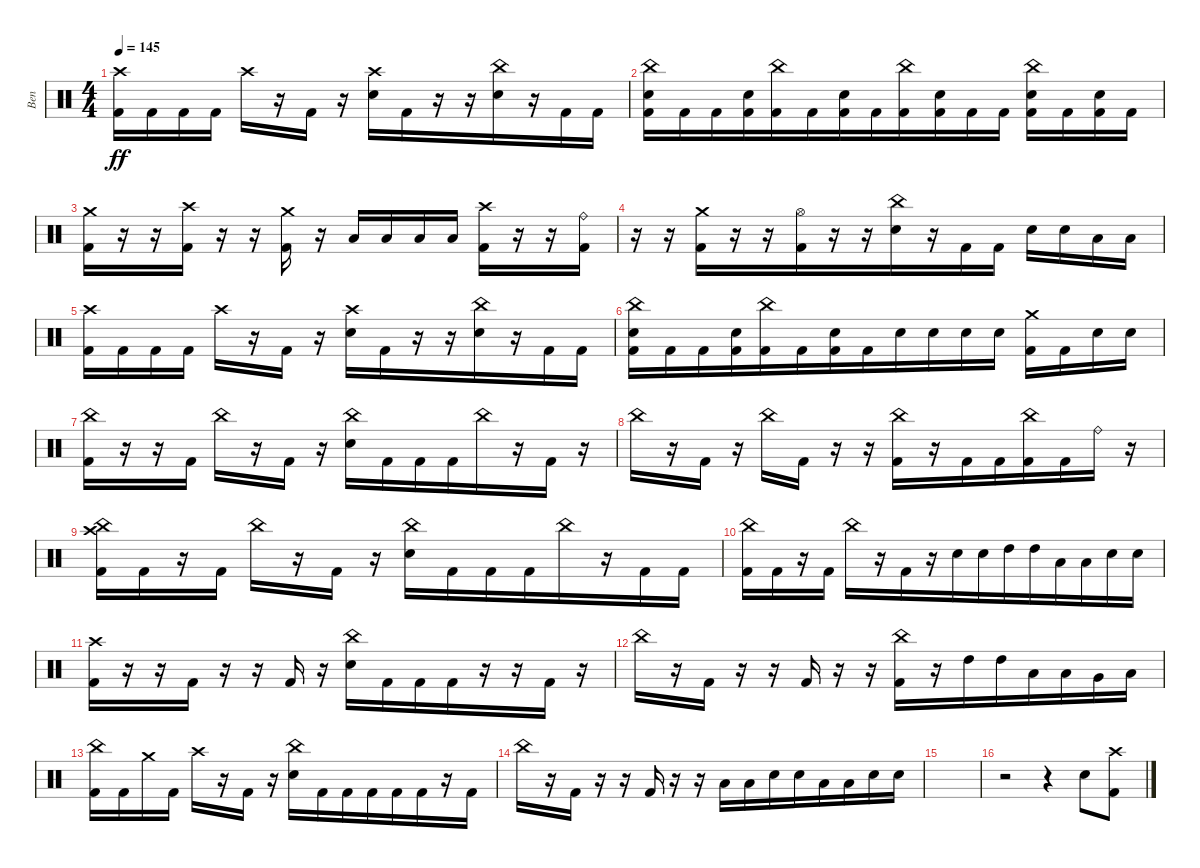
\track ("Ben" "Ben") {instrument percussion}
\staff {score}
\articulation defaults
\ts (4 4)
\tempo 145
\clef neutral
\ks c
("Kick (hit) 2" "Crash high (hit)").16{dy ff} "Kick (hit) 2".16 "Kick (hit) 2".16{beam merge} "Kick (hit) 2".16 "Crash high (hit)".16 r.16 "Kick (hit) 2".16 r.16{beam merge} ("Crash high (hit)" "Electric Snare (hit)").16 "Kick (hit) 2".16{beam merge} r.16 r.16 ("China (hit)" "Electric Snare (hit)").16 r.16 "Kick (hit) 2".16 "Kick (hit) 2".16 |
("China (hit)" "Kick (hit) 2" "Electric Snare (hit)").16 "Kick (hit) 2".16 "Kick (hit) 2".16{beam merge} ("Kick (hit) 2" "Electric Snare (hit)").16{beam merge} ("China (hit)" "Kick (hit) 2").16{beam merge} "Kick (hit) 2".16{beam merge} ("Kick (hit) 2" "Electric Snare (hit)").16{beam merge} "Kick (hit) 2".16{beam merge} ("China (hit)" "Kick (hit) 2").16{beam merge} ("Electric Snare (hit)" "Kick (hit) 2").16 "Kick (hit) 2".16{beam merge} "Kick (hit) 2".16 ("China (hit)" "Electric Snare (hit)" "Kick (hit) 2").16{beam merge} "Kick (hit) 2".16 ("Kick (hit) 2" "Electric Snare (hit)").16 "Kick (hit) 2".16 |
("Kick (hit) 2" "Crash medium (hit)").16 r.16 r.16{beam merge} ("Crash high (hit)" "Kick (hit) 2").16 r.16 r.16 ("Crash medium (hit)" "Kick (hit) 2").16 r.16{beam merge} "Low Tom (hit)".16 "Low Tom (hit)".16{beam merge} "Low Tom (hit)".16 "Low Tom (hit)".16 ("Kick (hit) 2" "Crash high (hit)").16 r.16 r.16 ("Kick (hit) 2" "Ride (bell)").16 |
r.16{beam merge} r.16{beam merge} ("Crash medium (hit)" "Kick (hit) 2").16{beam merge} r.16 r.16{beam merge} ("Hi-Hat (open)" "Kick (hit) 2").16{beam merge} r.16 r.16{beam merge} ("Electric Snare (hit)" "China (hit)").16 r.16 "Kick (hit) 2".16 "Kick (hit) 2".16 "Electric Snare (hit)".16 "Electric Snare (hit)".16{beam merge} "Low Tom (hit)".16 "Low Tom (hit)".16 |
("Kick (hit) 2" "Crash high (hit)").16 "Kick (hit) 2".16 "Kick (hit) 2".16{beam merge} "Kick (hit) 2".16 "Crash high (hit)".16 r.16 "Kick (hit) 2".16 r.16{beam merge} ("Crash high (hit)" "Electric Snare (hit)").16 "Kick (hit) 2".16{beam merge} r.16 r.16 ("China (hit)" "Electric Snare (hit)").16 r.16 "Kick (hit) 2".16 "Kick (hit) 2".16 |
("China (hit)" "Kick (hit) 2" "Electric Snare (hit)").16 "Kick (hit) 2".16 "Kick (hit) 2".16{beam merge} ("Kick (hit) 2" "Electric Snare (hit)").16{beam merge} ("China (hit)" "Kick (hit) 2").16{beam merge} "Kick (hit) 2".16{beam merge} ("Kick (hit) 2" "Electric Snare (hit)").16{beam merge} "Kick (hit) 2".16{beam merge} "Electric Snare (hit)".16 "Electric Snare (hit)".16 "Electric Snare (hit)".16 "Electric Snare (hit)".16 ("Crash medium (hit)" "Kick (hit) 2").16{beam merge} "Kick (hit) 2".16 "Electric Snare (hit)".16{beam merge} "Electric Snare (hit)".16 |
("China (hit)" "Kick (hit) 2").16{beam merge} r.16 r.16{beam merge} "Kick (hit) 2".16 "China (hit)".16 r.16 "Kick (hit) 2".16 r.16{beam merge} ("China (hit)" "Electric Snare (hit)").16 "Kick (hit) 2".16 "Kick (hit) 2".16 "Kick (hit) 2".16{beam merge} "China (hit)".16 r.16{beam merge} "Kick (hit) 2".16 r.16 |
"China (hit)".16 r.16{beam merge} "Kick (hit) 2".16 r.16 "China (hit)".16 "Kick (hit) 2".16 r.16{beam merge} r.16 ("Kick (hit) 2" "China (hit)").16{beam merge} r.16 "Kick (hit) 2".16 "Kick (hit) 2".16{beam merge} ("Kick (hit) 2" "China (hit)").16{beam merge} "Kick (hit) 2".16{beam merge} "Ride (bell)".16 r.16 |
("China (hit)" "Crash high (hit)" "Kick (hit) 2").16{beam merge} "Kick (hit) 2".16 r.16{beam merge} "Kick (hit) 2".16 "China (hit)".16 r.16 "Kick (hit) 2".16 r.16{beam merge} ("China (hit)" "Electric Snare (hit)").16 "Kick (hit) 2".16 "Kick (hit) 2".16 "Kick (hit) 2".16{beam merge} "China (hit)".16 r.16{beam merge} "Kick (hit) 2".16 "Kick (hit) 2".16 |
("Kick (hit) 2" "China (hit)").16 "Kick (hit) 2".16{beam merge} r.16 "Kick (hit) 2".16 "China (hit)".16 r.16 "Kick (hit) 2".16{beam merge} r.16 "Electric Snare (hit)".16{beam merge} "Electric Snare (hit)".16 "High Tom (hit)".16 "High Tom (hit)".16{beam merge} "Low Tom (hit)".16{beam merge} "Low Tom (hit)".16{beam merge} "Electric Snare (hit)".16 "Electric Snare (hit)".16 |
("Crash high (hit)" "Kick (hit) 2").16{beam merge} r.16 r.16{beam merge} "Kick (hit) 2".16 r.16 r.16 "Kick (hit) 2".16 r.16{beam merge} ("China (hit)" "Electric Snare (hit)").16 "Kick (hit) 2".16 "Kick (hit) 2".16 "Kick (hit) 2".16{beam merge} r.16 r.16{beam merge} "Kick (hit) 2".16 r.16 |
"China (hit)".16 r.16{beam merge} "Kick (hit) 2".16 r.16 r.16 "Kick (hit) 2".16 r.16{beam merge} r.16 ("Kick (hit) 2" "China (hit)").16{beam merge} r.16 "High Tom (hit)".16 "High Tom (hit)".16{beam merge} "Low Tom (hit)".16{beam merge} "Low Tom (hit)".16{beam merge} "Very Low Tom (hit)".16 "Low Floor Tom (hit)".16 |
("China (hit)" "Kick (hit) 2").16{beam merge} "Kick (hit) 2".16 "Crash medium (hit)".16{beam merge} "Kick (hit) 2".16 "Crash high (hit)".16 r.16 "Kick (hit) 2".16 r.16{beam merge} ("China (hit)" "Electric Snare (hit)").16 "Kick (hit) 2".16 "Kick (hit) 2".16 "Kick (hit) 2".16{beam merge} "Kick (hit) 2".16 "Kick (hit) 2".16{beam merge} r.16 "Kick (hit) 2".16 |
"China (hit)".16 r.16{beam merge} "Kick (hit) 2".16 r.16 r.16 "Kick (hit) 2".16 r.16{beam merge} r.16 "Low Tom (hit)".16{beam merge} "Low Tom (hit)".16 "Electric Snare (hit)".16 "Electric Snare (hit)".16{beam merge} "Low Tom (hit)".16{beam merge} "Low Tom (hit)".16{beam merge} "Electric Snare (hit)".16 "Electric Snare (hit)".16 |
|
r.2 r.4 "Electric Snare (hit)".8{beam merge} ("Crash high (hit)" "Kick (hit) 2").8
